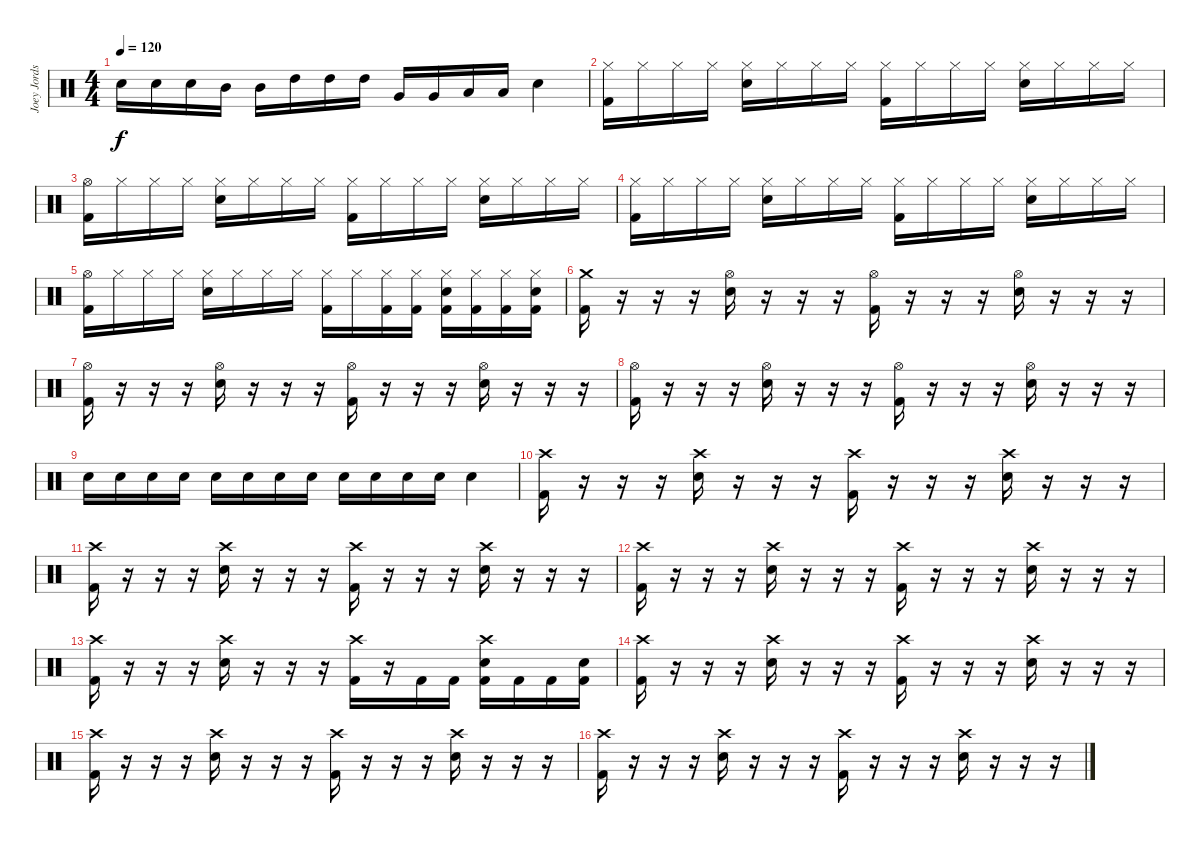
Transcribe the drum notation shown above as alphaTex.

\track ("Joey Jordson" "Joey Jords") {instrument percussion}
\staff {score}
\articulation defaults
\ts (4 4)
\tempo 120
\clef neutral
\ks c "Electric Snare (hit)".16{dy f} "Electric Snare (hit)".16 "Electric Snare (hit)".16 "Mid Tom (hit)".16 "Mid Tom (hit)".16 "High Tom (hit)".16 "High Tom (hit)".16 "High Tom (hit)".16 "Very Low Tom (hit)".16 "Very Low Tom (hit)".16 "Low Tom (hit)".16 "Low Tom (hit)".16 "Electric Snare (hit)".4
|
("Hi-Hat (closed)" "Kick (hit) 2").16 "Hi-Hat (closed)".16 "Hi-Hat (closed)".16 "Hi-Hat (closed)".16 ("Hi-Hat (closed)" "Electric Snare (hit)").16 "Hi-Hat (closed)".16 "Hi-Hat (closed)".16 "Hi-Hat (closed)".16 ("Hi-Hat (closed)" "Kick (hit) 2").16 "Hi-Hat (closed)".16 "Hi-Hat (closed)".16 "Hi-Hat (closed)".16 ("Hi-Hat (closed)" "Electric Snare (hit)").16 "Hi-Hat (closed)".16 "Hi-Hat (closed)".16 "Hi-Hat (closed)".16 |
("Hi-Hat (open)" "Kick (hit) 2").16 "Hi-Hat (closed)".16 "Hi-Hat (closed)".16 "Hi-Hat (closed)".16 ("Hi-Hat (closed)" "Electric Snare (hit)").16 "Hi-Hat (closed)".16 "Hi-Hat (closed)".16 "Hi-Hat (closed)".16 ("Hi-Hat (closed)" "Kick (hit) 2").16 "Hi-Hat (closed)".16 "Hi-Hat (closed)".16 "Hi-Hat (closed)".16 ("Hi-Hat (closed)" "Electric Snare (hit)").16 "Hi-Hat (closed)".16 "Hi-Hat (closed)".16 "Hi-Hat (closed)".16 |
("Hi-Hat (closed)" "Kick (hit) 2").16 "Hi-Hat (closed)".16 "Hi-Hat (closed)".16 "Hi-Hat (closed)".16 ("Hi-Hat (closed)" "Electric Snare (hit)").16 "Hi-Hat (closed)".16 "Hi-Hat (closed)".16 "Hi-Hat (closed)".16 ("Hi-Hat (closed)" "Kick (hit) 2").16 "Hi-Hat (closed)".16 "Hi-Hat (closed)".16 "Hi-Hat (closed)".16 ("Hi-Hat (closed)" "Electric Snare (hit)").16 "Hi-Hat (closed)".16 "Hi-Hat (closed)".16 "Hi-Hat (closed)".16 |
("Hi-Hat (open)" "Kick (hit) 2").16 "Hi-Hat (closed)".16 "Hi-Hat (closed)".16 "Hi-Hat (closed)".16 ("Hi-Hat (closed)" "Electric Snare (hit)").16 "Hi-Hat (closed)".16 "Hi-Hat (closed)".16 "Hi-Hat (closed)".16 ("Hi-Hat (closed)" "Kick (hit) 2").16 "Hi-Hat (closed)".16 ("Hi-Hat (closed)" "Kick (hit) 2").16 ("Hi-Hat (closed)" "Kick (hit) 2").16 ("Hi-Hat (closed)" "Electric Snare (hit)" "Kick (hit) 2").16 ("Hi-Hat (closed)" "Kick (hit) 2").16 ("Hi-Hat (closed)" "Kick (hit) 2").16 ("Hi-Hat (closed)" "Electric Snare (hit)" "Kick (hit) 2").16 |
("Crash medium (hit)" "Kick (hit) 2").16 r.16 r.16 r.16 ("Hi-Hat (open)" "Electric Snare (hit)").16 r.16 r.16 r.16 ("Hi-Hat (open)" "Kick (hit) 2").16 r.16 r.16 r.16 ("Hi-Hat (open)" "Electric Snare (hit)").16 r.16 r.16 r.16 |
("Hi-Hat (open)" "Kick (hit) 2").16 r.16 r.16 r.16 ("Hi-Hat (open)" "Electric Snare (hit)").16 r.16 r.16 r.16 ("Hi-Hat (open)" "Kick (hit) 2").16 r.16 r.16 r.16 ("Hi-Hat (open)" "Electric Snare (hit)").16 r.16 r.16 r.16 |
("Hi-Hat (open)" "Kick (hit) 2").16 r.16 r.16 r.16 ("Hi-Hat (open)" "Electric Snare (hit)").16 r.16 r.16 r.16 ("Hi-Hat (open)" "Kick (hit) 2").16 r.16 r.16 r.16 ("Hi-Hat (open)" "Electric Snare (hit)").16 r.16 r.16 r.16 |
"Electric Snare (hit)".16 "Electric Snare (hit)".16 "Electric Snare (hit)".16 "Electric Snare (hit)".16 "Electric Snare (hit)".16 "Electric Snare (hit)".16 "Electric Snare (hit)".16 "Electric Snare (hit)".16 "Electric Snare (hit)".16 "Electric Snare (hit)".16 "Electric Snare (hit)".16 "Electric Snare (hit)".16 "Electric Snare (hit)".4 |
("Crash high (hit)" "Kick (hit) 2").16 r.16 r.16 r.16 ("Crash high (hit)" "Electric Snare (hit)").16 r.16 r.16 r.16 ("Crash high (hit)" "Kick (hit) 2").16 r.16 r.16 r.16 ("Crash high (hit)" "Electric Snare (hit)").16 r.16 r.16 r.16 |
("Crash high (hit)" "Kick (hit) 2").16 r.16 r.16 r.16 ("Crash high (hit)" "Electric Snare (hit)").16 r.16 r.16 r.16 ("Crash high (hit)" "Kick (hit) 2").16 r.16 r.16 r.16 ("Crash high (hit)" "Electric Snare (hit)").16 r.16 r.16 r.16 |
("Crash high (hit)" "Kick (hit) 2").16 r.16 r.16 r.16 ("Crash high (hit)" "Electric Snare (hit)").16 r.16 r.16 r.16 ("Crash high (hit)" "Kick (hit) 2").16 r.16 r.16 r.16 ("Crash high (hit)" "Electric Snare (hit)").16 r.16 r.16 r.16 |
("Crash high (hit)" "Kick (hit) 2").16 r.16 r.16 r.16 ("Crash high (hit)" "Electric Snare (hit)").16 r.16 r.16 r.16 ("Crash high (hit)" "Kick (hit) 2").16 r.16 "Kick (hit) 2".16 "Kick (hit) 2".16 ("Crash high (hit)" "Electric Snare (hit)" "Kick (hit) 2").16 "Kick (hit) 2".16 "Kick (hit) 2".16 ("Electric Snare (hit)" "Kick (hit) 2").16 |
("Crash high (hit)" "Kick (hit) 2").16 r.16 r.16 r.16 ("Crash high (hit)" "Electric Snare (hit)").16 r.16 r.16 r.16 ("Crash high (hit)" "Kick (hit) 2").16 r.16 r.16 r.16 ("Crash high (hit)" "Electric Snare (hit)").16 r.16 r.16 r.16 |
("Crash high (hit)" "Kick (hit) 2").16 r.16 r.16 r.16 ("Crash high (hit)" "Electric Snare (hit)").16 r.16 r.16 r.16 ("Crash high (hit)" "Kick (hit) 2").16 r.16 r.16 r.16 ("Crash high (hit)" "Electric Snare (hit)").16 r.16 r.16 r.16 |
("Crash high (hit)" "Kick (hit) 2").16 r.16 r.16 r.16 ("Crash high (hit)" "Electric Snare (hit)").16 r.16 r.16 r.16 ("Crash high (hit)" "Kick (hit) 2").16 r.16 r.16 r.16 ("Crash high (hit)" "Electric Snare (hit)").16 r.16 r.16 r.16
